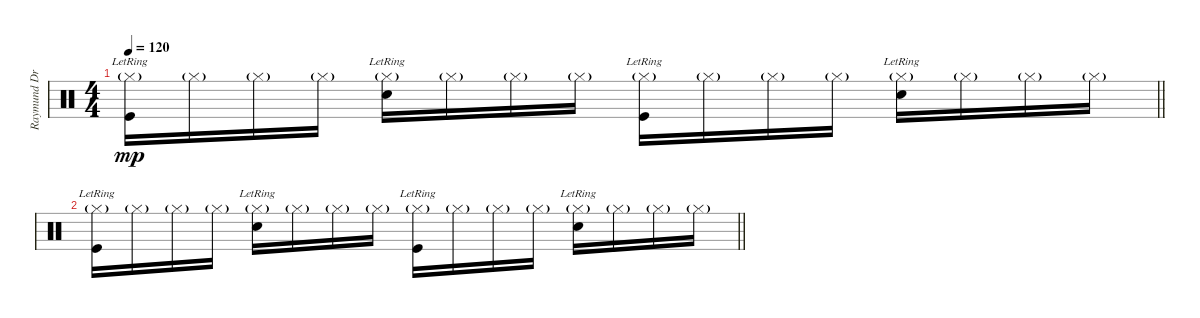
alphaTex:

\track ("Raymund Drums" "Raymund Dr") {instrument percussion}
\staff {score}
\articulation defaults
\ts (4 4)
\tempo 120
\clef neutral
\barLineRight lightlight
\ks c
("Hi-Hat (closed)"{g} "Kick (hit)"{lr}).16{dy mp} "Hi-Hat (closed)"{g}.16 "Hi-Hat (closed)"{g}.16 "Hi-Hat (closed)"{g}.16 ("Hi-Hat (closed)"{g} "Snare (hit) 2"{lr}).16 "Hi-Hat (closed)"{g}.16 "Hi-Hat (closed)"{g}.16 "Hi-Hat (closed)"{g}.16 ("Hi-Hat (closed)"{g} "Kick (hit)"{lr}).16 "Hi-Hat (closed)"{g}.16 "Hi-Hat (closed)"{g}.16 "Hi-Hat (closed)"{g}.16 ("Hi-Hat (closed)"{g} "Snare (hit) 2"{lr}).16 "Hi-Hat (closed)"{g}.16 "Hi-Hat (closed)"{g}.16 "Hi-Hat (closed)"{g}.16 |
\barLineRight lightlight
("Hi-Hat (closed)"{g} "Kick (hit)"{lr}).16 "Hi-Hat (closed)"{g}.16 "Hi-Hat (closed)"{g}.16 "Hi-Hat (closed)"{g}.16 ("Hi-Hat (closed)"{g} "Snare (hit) 2"{lr}).16 "Hi-Hat (closed)"{g}.16 "Hi-Hat (closed)"{g}.16 "Hi-Hat (closed)"{g}.16 ("Hi-Hat (closed)"{g} "Kick (hit)"{lr}).16 "Hi-Hat (closed)"{g}.16 "Hi-Hat (closed)"{g}.16 "Hi-Hat (closed)"{g}.16 ("Hi-Hat (closed)"{g} "Snare (hit) 2"{lr}).16 "Hi-Hat (closed)"{g}.16 "Hi-Hat (closed)"{g}.16 "Hi-Hat (closed)"{g}.16
